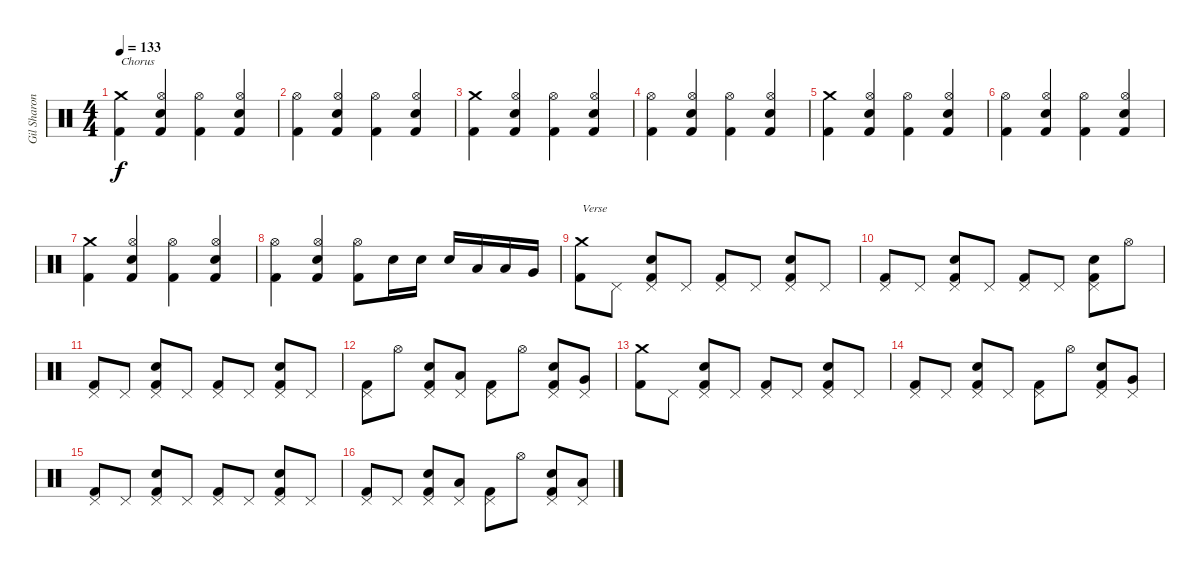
\track ("Gil Sharone" "Gil Sharon") {instrument percussion}
\staff {score}
\articulation defaults
\ts (4 4)
\tempo 133
\clef neutral
\ks c
("Crash medium (hit)" "Kick (hit) 2").4{txt "Chorus" dy f} ("Hi-Hat (open)" "Electric Snare (hit)" "Kick (hit) 2").4 ("Hi-Hat (open)" "Kick (hit) 2").4 ("Hi-Hat (open)" "Electric Snare (hit)" "Kick (hit) 2").4 |
("Hi-Hat (open)" "Kick (hit) 2").4 ("Hi-Hat (open)" "Electric Snare (hit)" "Kick (hit) 2").4 ("Hi-Hat (open)" "Kick (hit) 2").4 ("Hi-Hat (open)" "Electric Snare (hit)" "Kick (hit) 2").4 |
("Crash medium (hit)" "Kick (hit) 2").4 ("Hi-Hat (open)" "Electric Snare (hit)" "Kick (hit) 2").4 ("Hi-Hat (open)" "Kick (hit) 2").4 ("Hi-Hat (open)" "Electric Snare (hit)" "Kick (hit) 2").4 |
("Hi-Hat (open)" "Kick (hit) 2").4 ("Hi-Hat (open)" "Electric Snare (hit)" "Kick (hit) 2").4 ("Hi-Hat (open)" "Kick (hit) 2").4 ("Hi-Hat (open)" "Electric Snare (hit)" "Kick (hit) 2").4 |
("Crash medium (hit)" "Kick (hit) 2").4 ("Hi-Hat (open)" "Electric Snare (hit)" "Kick (hit) 2").4 ("Hi-Hat (open)" "Kick (hit) 2").4 ("Hi-Hat (open)" "Electric Snare (hit)" "Kick (hit) 2").4 |
("Hi-Hat (open)" "Kick (hit) 2").4 ("Hi-Hat (open)" "Electric Snare (hit)" "Kick (hit) 2").4 ("Hi-Hat (open)" "Kick (hit) 2").4 ("Hi-Hat (open)" "Electric Snare (hit)" "Kick (hit) 2").4 |
("Crash medium (hit)" "Kick (hit) 2").4 ("Hi-Hat (open)" "Electric Snare (hit)" "Kick (hit) 2").4 ("Hi-Hat (open)" "Kick (hit) 2").4 ("Hi-Hat (open)" "Electric Snare (hit)" "Kick (hit) 2").4 |
("Hi-Hat (open)" "Kick (hit) 2").4 ("Hi-Hat (open)" "Electric Snare (hit)" "Kick (hit) 2").4 ("Hi-Hat (open)" "Kick (hit) 2").8 "Electric Snare (hit)".16 "Electric Snare (hit)".16 "Electric Snare (hit)".16 "Low Tom (hit)".16 "Low Tom (hit)".16 "Very Low Tom (hit)".16 |
("Crash medium (hit)" "Kick (hit) 2").8{txt "Verse"} "Pedal Hi-Hat (hit)".8 ("Pedal Hi-Hat (hit)" "Electric Snare (hit)" "Kick (hit) 2").8 "Pedal Hi-Hat (hit)".8 ("Pedal Hi-Hat (hit)" "Kick (hit) 2").8 "Pedal Hi-Hat (hit)".8 ("Pedal Hi-Hat (hit)" "Electric Snare (hit)" "Kick (hit) 2").8 "Pedal Hi-Hat (hit)".8 |
("Pedal Hi-Hat (hit)" "Kick (hit) 2").8 "Pedal Hi-Hat (hit)".8 ("Pedal Hi-Hat (hit)" "Electric Snare (hit)" "Kick (hit) 2").8 "Pedal Hi-Hat (hit)".8 ("Pedal Hi-Hat (hit)" "Kick (hit) 2").8 "Pedal Hi-Hat (hit)".8 ("Pedal Hi-Hat (hit)" "Electric Snare (hit)" "Kick (hit) 2").8 "Hi-Hat (open)".8 |
("Pedal Hi-Hat (hit)" "Kick (hit) 2").8 "Pedal Hi-Hat (hit)".8 ("Pedal Hi-Hat (hit)" "Electric Snare (hit)" "Kick (hit) 2").8 "Pedal Hi-Hat (hit)".8 ("Pedal Hi-Hat (hit)" "Kick (hit) 2").8 "Pedal Hi-Hat (hit)".8 ("Pedal Hi-Hat (hit)" "Electric Snare (hit)" "Kick (hit) 2").8 "Pedal Hi-Hat (hit)".8 |
("Pedal Hi-Hat (hit)" "Kick (hit) 2").8 "Hi-Hat (open)".8 ("Pedal Hi-Hat (hit)" "Electric Snare (hit)" "Kick (hit) 2").8 ("Pedal Hi-Hat (hit)" "Low Tom (hit)").8 ("Pedal Hi-Hat (hit)" "Kick (hit) 2").8 "Hi-Hat (open)".8 ("Pedal Hi-Hat (hit)" "Electric Snare (hit)" "Kick (hit) 2").8 ("Pedal Hi-Hat (hit)" "Very Low Tom (hit)").8 |
("Crash medium (hit)" "Kick (hit) 2").8 "Pedal Hi-Hat (hit)".8 ("Pedal Hi-Hat (hit)" "Electric Snare (hit)" "Kick (hit) 2").8 "Pedal Hi-Hat (hit)".8 ("Pedal Hi-Hat (hit)" "Kick (hit) 2").8 "Pedal Hi-Hat (hit)".8 ("Pedal Hi-Hat (hit)" "Electric Snare (hit)" "Kick (hit) 2").8 "Pedal Hi-Hat (hit)".8 |
("Pedal Hi-Hat (hit)" "Kick (hit) 2").8 "Pedal Hi-Hat (hit)".8 ("Pedal Hi-Hat (hit)" "Electric Snare (hit)" "Kick (hit) 2").8 "Pedal Hi-Hat (hit)".8 ("Pedal Hi-Hat (hit)" "Kick (hit) 2").8 "Hi-Hat (open)".8 ("Pedal Hi-Hat (hit)" "Electric Snare (hit)" "Kick (hit) 2").8 ("Pedal Hi-Hat (hit)" "Very Low Tom (hit)").8 |
("Pedal Hi-Hat (hit)" "Kick (hit) 2").8 "Pedal Hi-Hat (hit)".8 ("Pedal Hi-Hat (hit)" "Electric Snare (hit)" "Kick (hit) 2").8 "Pedal Hi-Hat (hit)".8 ("Pedal Hi-Hat (hit)" "Kick (hit) 2").8 "Pedal Hi-Hat (hit)".8 ("Pedal Hi-Hat (hit)" "Electric Snare (hit)" "Kick (hit) 2").8 "Pedal Hi-Hat (hit)".8 |
("Pedal Hi-Hat (hit)" "Kick (hit) 2").8 "Pedal Hi-Hat (hit)".8 ("Pedal Hi-Hat (hit)" "Electric Snare (hit)" "Kick (hit) 2").8 ("Pedal Hi-Hat (hit)" "Low Tom (hit)").8 ("Pedal Hi-Hat (hit)" "Kick (hit) 2").8 "Hi-Hat (open)".8 ("Pedal Hi-Hat (hit)" "Electric Snare (hit)" "Kick (hit) 2").8 ("Pedal Hi-Hat (hit)" "Low Tom (hit)").8
